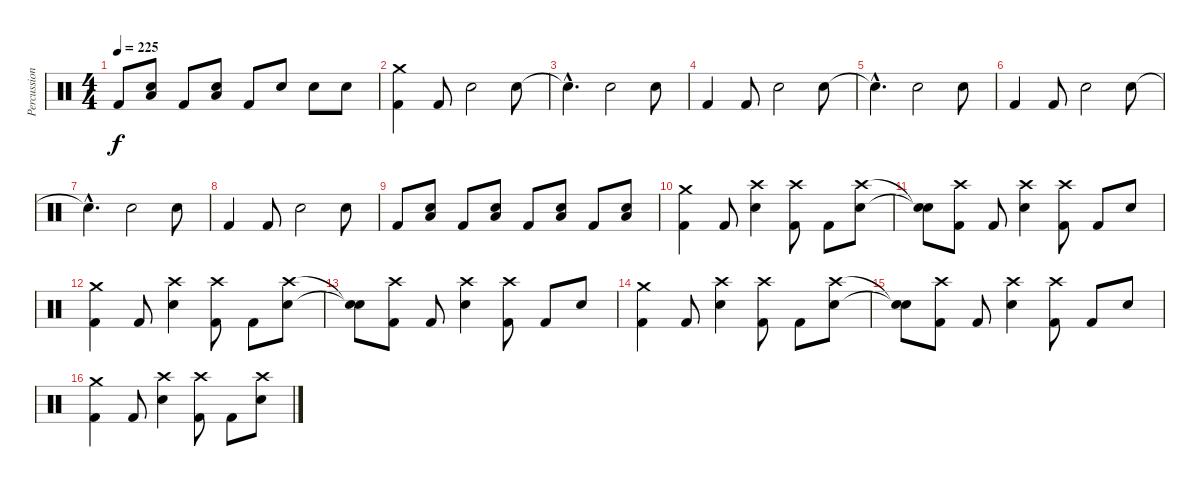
\track ("Percussion" "Percussion") {instrument percussion}
\staff {score}
\articulation defaults
\ts (4 4)
\tempo 225
\clef neutral
\ks c "Kick (hit) 2".8{dy f volume 14 balance 8}
("Snare (hit) 2" "Low Floor Tom (hit)").8 "Kick (hit) 2".8 ("Snare (hit) 2" "Low Floor Tom (hit)").8 "Kick (hit) 2".8 "Snare (hit) 2".8 "Snare (hit) 2".8 "Snare (hit) 2".8 |
("Crash medium (hit)" "Kick (hit) 2").4 "Kick (hit) 2".8 "Snare (hit) 2".2 "Snare (hit) 2".8 |
"Snare (hit) 2"{hac t}.4{d} "Snare (hit) 2".2 "Snare (hit) 2".8 |
"Kick (hit) 2".4 "Kick (hit) 2".8 "Snare (hit) 2".2 "Snare (hit) 2".8 |
"Snare (hit) 2"{hac t}.4{d} "Snare (hit) 2".2 "Snare (hit) 2".8 |
"Kick (hit) 2".4 "Kick (hit) 2".8 "Snare (hit) 2".2 "Snare (hit) 2".8 |
"Snare (hit) 2"{hac t}.4{d} "Snare (hit) 2".2 "Snare (hit) 2".8 |
"Kick (hit) 2".4 "Kick (hit) 2".8 "Snare (hit) 2".2 "Snare (hit) 2".8 |
"Kick (hit) 2".8 ("Snare (hit) 2" "Low Floor Tom (hit)").8 "Kick (hit) 2".8 ("Snare (hit) 2" "Low Floor Tom (hit)").8 "Kick (hit) 2".8 ("Snare (hit) 2" "Low Floor Tom (hit)").8 "Kick (hit) 2".8 ("Snare (hit) 2" "Low Floor Tom (hit)").8 |
("Crash medium (hit)" "Kick (hit) 2").4 "Kick (hit) 2".8 ("Crash high (hit)" "Snare (hit) 2").4 ("Crash high (hit)" "Kick (hit) 2").8 "Kick (hit) 2".8 ("Crash high (hit)" "Snare (hit) 2").8 |
("Snare (hit)"{t} "Snare (hit)"{t}).8 ("Crash high (hit)" "Kick (hit) 2").8 "Kick (hit) 2".8 ("Crash high (hit)" "Snare (hit) 2").4 ("Crash high (hit)" "Kick (hit) 2").8 "Kick (hit) 2".8 "Snare (hit) 2".8 |
("Crash medium (hit)" "Kick (hit) 2").4 "Kick (hit) 2".8 ("Crash high (hit)" "Snare (hit) 2").4 ("Crash high (hit)" "Kick (hit) 2").8 "Kick (hit) 2".8 ("Crash high (hit)" "Snare (hit) 2").8 |
("Snare (hit)"{t} "Snare (hit)"{t}).8 ("Crash high (hit)" "Kick (hit) 2").8 "Kick (hit) 2".8 ("Crash high (hit)" "Snare (hit) 2").4 ("Crash high (hit)" "Kick (hit) 2").8 "Kick (hit) 2".8 "Snare (hit) 2".8 |
("Crash medium (hit)" "Kick (hit) 2").4 "Kick (hit) 2".8 ("Crash high (hit)" "Snare (hit) 2").4 ("Crash high (hit)" "Kick (hit) 2").8 "Kick (hit) 2".8 ("Crash high (hit)" "Snare (hit) 2").8 |
("Snare (hit)"{t} "Snare (hit)"{t}).8 ("Crash high (hit)" "Kick (hit) 2").8 "Kick (hit) 2".8 ("Crash high (hit)" "Snare (hit) 2").4 ("Crash high (hit)" "Kick (hit) 2").8 "Kick (hit) 2".8 "Snare (hit) 2".8 |
("Crash medium (hit)" "Kick (hit) 2").4 "Kick (hit) 2".8 ("Crash high (hit)" "Snare (hit) 2").4 ("Crash high (hit)" "Kick (hit) 2").8 "Kick (hit) 2".8 ("Crash high (hit)" "Snare (hit) 2").8
